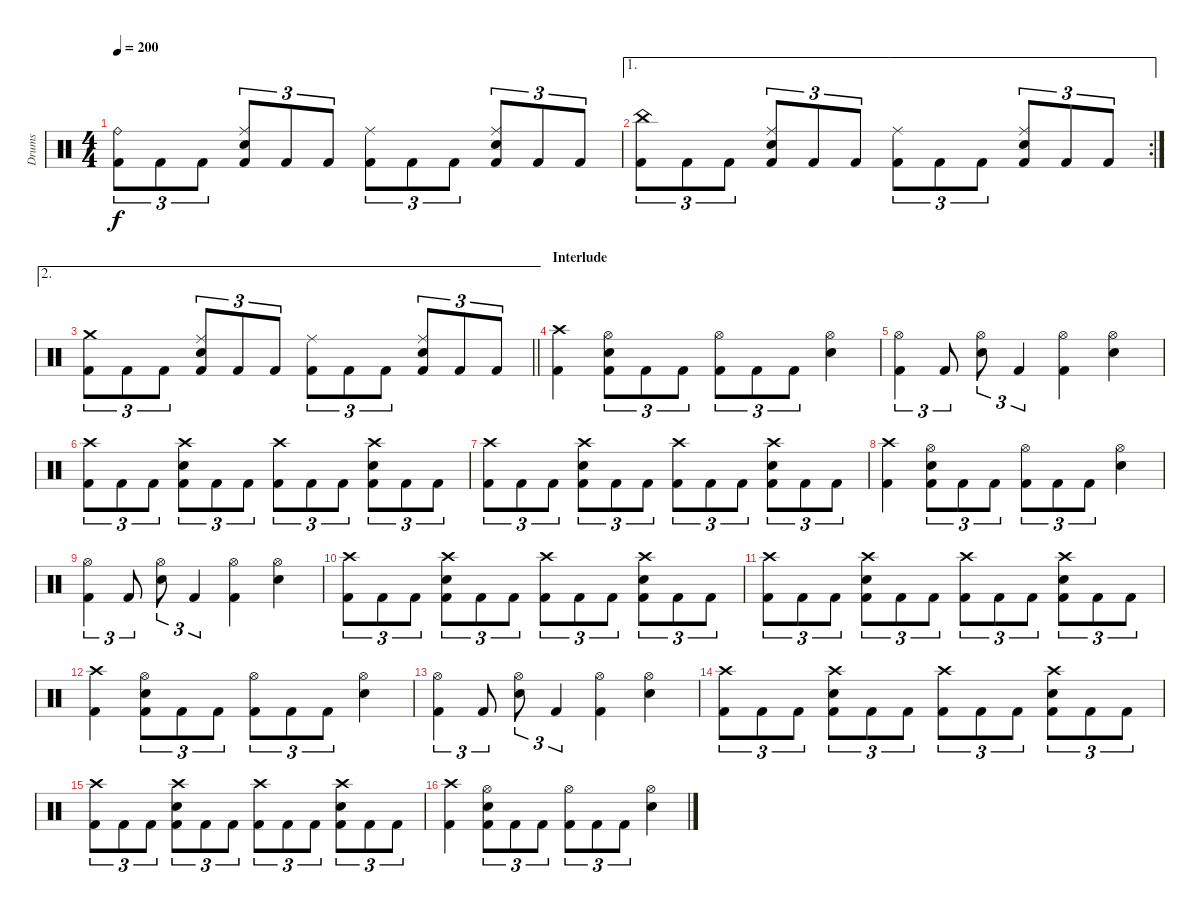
\track ("Drums" "Drums") {instrument percussion}
\staff {score}
\articulation defaults
\ts (4 4)
\tempo 200
\clef neutral
\ks c
("Ride (bell)" "Kick (hit) 2").8{tu (3 2) dy f} "Kick (hit) 2".8{tu (3 2)} "Kick (hit) 2".8{tu (3 2)} ("Ride (middle)" "Electric Snare (hit)" "Kick (hit) 2").8{tu (3 2)} "Kick (hit) 2".8{tu (3 2)} "Kick (hit) 2".8{tu (3 2)} ("Ride (middle)" "Kick (hit) 2").8{tu (3 2)} "Kick (hit) 2".8{tu (3 2)} "Kick (hit) 2".8{tu (3 2)} ("Ride (middle)" "Electric Snare (hit)" "Kick (hit) 2").8{tu (3 2)} "Kick (hit) 2".8{tu (3 2)} "Kick (hit) 2".8{tu (3 2)} |
\ae 1
\rc 2
("China (hit)" "Kick (hit) 2").8{tu (3 2)} "Kick (hit) 2".8{tu (3 2)} "Kick (hit) 2".8{tu (3 2)} ("Ride (middle)" "Electric Snare (hit)" "Kick (hit) 2").8{tu (3 2)} "Kick (hit) 2".8{tu (3 2)} "Kick (hit) 2".8{tu (3 2)} ("Ride (middle)" "Kick (hit) 2").8{tu (3 2)} "Kick (hit) 2".8{tu (3 2)} "Kick (hit) 2".8{tu (3 2)} ("Ride (middle)" "Electric Snare (hit)" "Kick (hit) 2").8{tu (3 2)} "Kick (hit) 2".8{tu (3 2)} "Kick (hit) 2".8{tu (3 2)} |
\ae 2
\barLineRight lightlight
("Crash medium (hit)" "Kick (hit) 2").8{tu (3 2)} "Kick (hit) 2".8{tu (3 2)} "Kick (hit) 2".8{tu (3 2)} ("Ride (middle)" "Electric Snare (hit)" "Kick (hit) 2").8{tu (3 2)} "Kick (hit) 2".8{tu (3 2)} "Kick (hit) 2".8{tu (3 2)} ("Ride (middle)" "Kick (hit) 2").8{tu (3 2)} "Kick (hit) 2".8{tu (3 2)} "Kick (hit) 2".8{tu (3 2)} ("Ride (middle)" "Electric Snare (hit)" "Kick (hit) 2").8{tu (3 2)} "Kick (hit) 2".8{tu (3 2)} "Kick (hit) 2".8{tu (3 2)} |
\section ("" "Interlude")
("Crash high (hit)" "Kick (hit) 2").4 ("Hi-Hat (open)" "Electric Snare (hit)" "Kick (hit) 2").8{tu (3 2)} "Kick (hit) 2".8{tu (3 2)} "Kick (hit) 2".8{tu (3 2)} ("Hi-Hat (open)" "Kick (hit) 2").8{tu (3 2)} "Kick (hit) 2".8{tu (3 2)} "Kick (hit) 2".8{tu (3 2)} ("Hi-Hat (open)" "Electric Snare (hit)").4 |
("Hi-Hat (open)" "Kick (hit) 2").4{tu (3 2)} "Kick (hit) 2".8{tu (3 2)} ("Hi-Hat (open)" "Electric Snare (hit)").8{tu (3 2)} "Kick (hit) 2".4{tu (3 2)} ("Hi-Hat (open)" "Kick (hit) 2").4 ("Hi-Hat (open)" "Electric Snare (hit)").4 |
("Crash high (hit)" "Kick (hit) 2").8{tu (3 2)} "Kick (hit) 2".8{tu (3 2)} "Kick (hit) 2".8{tu (3 2)} ("Crash high (hit)" "Electric Snare (hit)" "Kick (hit) 2").8{tu (3 2)} "Kick (hit) 2".8{tu (3 2)} "Kick (hit) 2".8{tu (3 2)} ("Crash high (hit)" "Kick (hit) 2").8{tu (3 2)} "Kick (hit) 2".8{tu (3 2)} "Kick (hit) 2".8{tu (3 2)} ("Crash high (hit)" "Electric Snare (hit)" "Kick (hit) 2").8{tu (3 2)} "Kick (hit) 2".8{tu (3 2)} "Kick (hit) 2".8{tu (3 2)} |
("Crash high (hit)" "Kick (hit) 2").8{tu (3 2)} "Kick (hit) 2".8{tu (3 2)} "Kick (hit) 2".8{tu (3 2)} ("Crash high (hit)" "Electric Snare (hit)" "Kick (hit) 2").8{tu (3 2)} "Kick (hit) 2".8{tu (3 2)} "Kick (hit) 2".8{tu (3 2)} ("Crash high (hit)" "Kick (hit) 2").8{tu (3 2)} "Kick (hit) 2".8{tu (3 2)} "Kick (hit) 2".8{tu (3 2)} ("Crash high (hit)" "Electric Snare (hit)" "Kick (hit) 2").8{tu (3 2)} "Kick (hit) 2".8{tu (3 2)} "Kick (hit) 2".8{tu (3 2)} |
("Crash high (hit)" "Kick (hit) 2").4 ("Hi-Hat (open)" "Electric Snare (hit)" "Kick (hit) 2").8{tu (3 2)} "Kick (hit) 2".8{tu (3 2)} "Kick (hit) 2".8{tu (3 2)} ("Hi-Hat (open)" "Kick (hit) 2").8{tu (3 2)} "Kick (hit) 2".8{tu (3 2)} "Kick (hit) 2".8{tu (3 2)} ("Hi-Hat (open)" "Electric Snare (hit)").4 |
("Hi-Hat (open)" "Kick (hit) 2").4{tu (3 2)} "Kick (hit) 2".8{tu (3 2)} ("Hi-Hat (open)" "Electric Snare (hit)").8{tu (3 2)} "Kick (hit) 2".4{tu (3 2)} ("Hi-Hat (open)" "Kick (hit) 2").4 ("Hi-Hat (open)" "Electric Snare (hit)").4 |
("Crash high (hit)" "Kick (hit) 2").8{tu (3 2)} "Kick (hit) 2".8{tu (3 2)} "Kick (hit) 2".8{tu (3 2)} ("Crash high (hit)" "Electric Snare (hit)" "Kick (hit) 2").8{tu (3 2)} "Kick (hit) 2".8{tu (3 2)} "Kick (hit) 2".8{tu (3 2)} ("Crash high (hit)" "Kick (hit) 2").8{tu (3 2)} "Kick (hit) 2".8{tu (3 2)} "Kick (hit) 2".8{tu (3 2)} ("Crash high (hit)" "Electric Snare (hit)" "Kick (hit) 2").8{tu (3 2)} "Kick (hit) 2".8{tu (3 2)} "Kick (hit) 2".8{tu (3 2)} |
("Crash high (hit)" "Kick (hit) 2").8{tu (3 2)} "Kick (hit) 2".8{tu (3 2)} "Kick (hit) 2".8{tu (3 2)} ("Crash high (hit)" "Electric Snare (hit)" "Kick (hit) 2").8{tu (3 2)} "Kick (hit) 2".8{tu (3 2)} "Kick (hit) 2".8{tu (3 2)} ("Crash high (hit)" "Kick (hit) 2").8{tu (3 2)} "Kick (hit) 2".8{tu (3 2)} "Kick (hit) 2".8{tu (3 2)} ("Crash high (hit)" "Electric Snare (hit)" "Kick (hit) 2").8{tu (3 2)} "Kick (hit) 2".8{tu (3 2)} "Kick (hit) 2".8{tu (3 2)} |
("Crash high (hit)" "Kick (hit) 2").4 ("Hi-Hat (open)" "Electric Snare (hit)" "Kick (hit) 2").8{tu (3 2)} "Kick (hit) 2".8{tu (3 2)} "Kick (hit) 2".8{tu (3 2)} ("Hi-Hat (open)" "Kick (hit) 2").8{tu (3 2)} "Kick (hit) 2".8{tu (3 2)} "Kick (hit) 2".8{tu (3 2)} ("Hi-Hat (open)" "Electric Snare (hit)").4 |
("Hi-Hat (open)" "Kick (hit) 2").4{tu (3 2)} "Kick (hit) 2".8{tu (3 2)} ("Hi-Hat (open)" "Electric Snare (hit)").8{tu (3 2)} "Kick (hit) 2".4{tu (3 2)} ("Hi-Hat (open)" "Kick (hit) 2").4 ("Hi-Hat (open)" "Electric Snare (hit)").4 |
("Crash high (hit)" "Kick (hit) 2").8{tu (3 2)} "Kick (hit) 2".8{tu (3 2)} "Kick (hit) 2".8{tu (3 2)} ("Crash high (hit)" "Electric Snare (hit)" "Kick (hit) 2").8{tu (3 2)} "Kick (hit) 2".8{tu (3 2)} "Kick (hit) 2".8{tu (3 2)} ("Crash high (hit)" "Kick (hit) 2").8{tu (3 2)} "Kick (hit) 2".8{tu (3 2)} "Kick (hit) 2".8{tu (3 2)} ("Crash high (hit)" "Electric Snare (hit)" "Kick (hit) 2").8{tu (3 2)} "Kick (hit) 2".8{tu (3 2)} "Kick (hit) 2".8{tu (3 2)} |
("Crash high (hit)" "Kick (hit) 2").8{tu (3 2)} "Kick (hit) 2".8{tu (3 2)} "Kick (hit) 2".8{tu (3 2)} ("Crash high (hit)" "Electric Snare (hit)" "Kick (hit) 2").8{tu (3 2)} "Kick (hit) 2".8{tu (3 2)} "Kick (hit) 2".8{tu (3 2)} ("Crash high (hit)" "Kick (hit) 2").8{tu (3 2)} "Kick (hit) 2".8{tu (3 2)} "Kick (hit) 2".8{tu (3 2)} ("Crash high (hit)" "Electric Snare (hit)" "Kick (hit) 2").8{tu (3 2)} "Kick (hit) 2".8{tu (3 2)} "Kick (hit) 2".8{tu (3 2)} |
("Crash high (hit)" "Kick (hit) 2").4 ("Hi-Hat (open)" "Electric Snare (hit)" "Kick (hit) 2").8{tu (3 2)} "Kick (hit) 2".8{tu (3 2)} "Kick (hit) 2".8{tu (3 2)} ("Hi-Hat (open)" "Kick (hit) 2").8{tu (3 2)} "Kick (hit) 2".8{tu (3 2)} "Kick (hit) 2".8{tu (3 2)} ("Hi-Hat (open)" "Electric Snare (hit)").4
